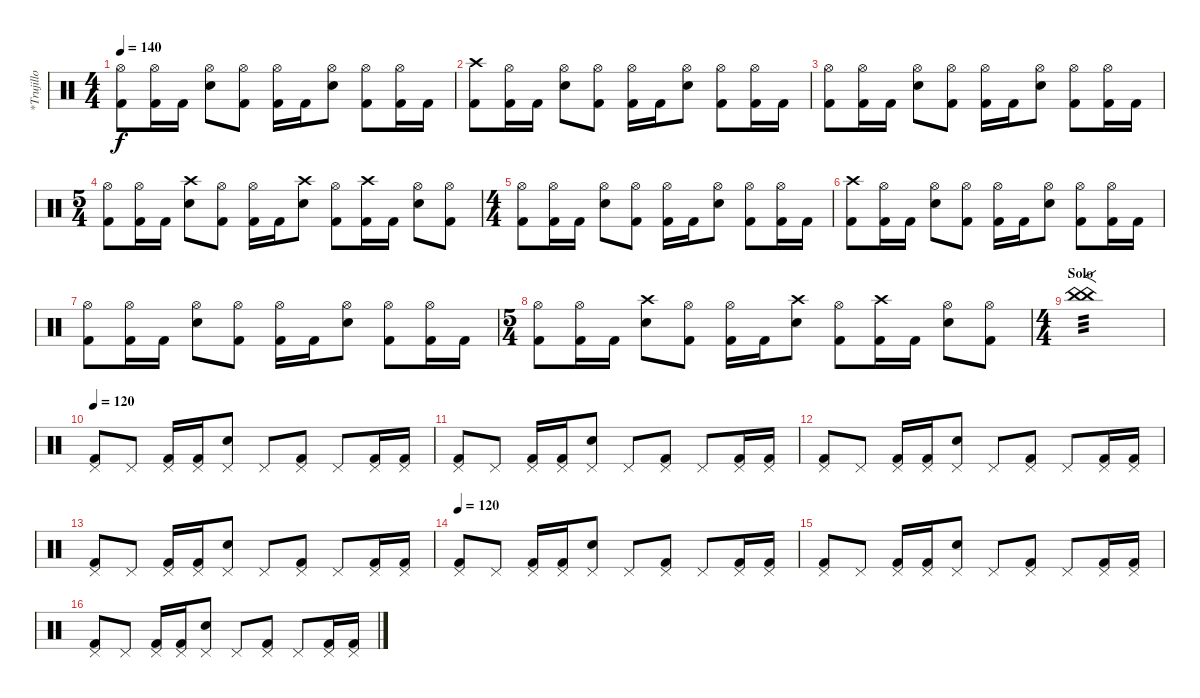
\track ("*Trujillo" "*Trujillo") {instrument percussion}
\staff {score}
\articulation defaults
\ts (4 4)
\tempo 140
\clef neutral
\ks c
("Hi-Hat (open)" "Kick (hit) 2").8{dy f} ("Hi-Hat (open)" "Kick (hit) 2").16 "Kick (hit) 2".16 ("Hi-Hat (open)" "Electric Snare (hit)").8 ("Hi-Hat (open)" "Kick (hit) 2").8 ("Hi-Hat (open)" "Kick (hit) 2").16 "Kick (hit) 2".16 ("Hi-Hat (open)" "Electric Snare (hit)").8 ("Hi-Hat (open)" "Kick (hit) 2").8 ("Hi-Hat (open)" "Kick (hit) 2").16 "Kick (hit) 2".16 |
("Crash high (hit)" "Kick (hit) 2").8 ("Hi-Hat (open)" "Kick (hit) 2").16 "Kick (hit) 2".16 ("Hi-Hat (open)" "Electric Snare (hit)").8 ("Hi-Hat (open)" "Kick (hit) 2").8 ("Hi-Hat (open)" "Kick (hit) 2").16 "Kick (hit) 2".16 ("Hi-Hat (open)" "Electric Snare (hit)").8 ("Hi-Hat (open)" "Kick (hit) 2").8 ("Hi-Hat (open)" "Kick (hit) 2").16 "Kick (hit) 2".16 |
("Hi-Hat (open)" "Kick (hit) 2").8 ("Hi-Hat (open)" "Kick (hit) 2").16 "Kick (hit) 2".16 ("Hi-Hat (open)" "Electric Snare (hit)").8 ("Hi-Hat (open)" "Kick (hit) 2").8 ("Hi-Hat (open)" "Kick (hit) 2").16 "Kick (hit) 2".16 ("Hi-Hat (open)" "Electric Snare (hit)").8 ("Hi-Hat (open)" "Kick (hit) 2").8 ("Hi-Hat (open)" "Kick (hit) 2").16 "Kick (hit) 2".16 |
\ts (5 4)
("Hi-Hat (open)" "Kick (hit) 2").8 ("Hi-Hat (open)" "Kick (hit) 2").16 "Kick (hit) 2".16 ("Crash high (hit)" "Electric Snare (hit)").8 ("Hi-Hat (open)" "Kick (hit) 2").8 ("Hi-Hat (open)" "Kick (hit) 2").16 "Kick (hit) 2".16 ("Crash high (hit)" "Electric Snare (hit)").8 ("Hi-Hat (open)" "Kick (hit) 2").8 ("Crash high (hit)" "Kick (hit) 2").16 "Kick (hit) 2".16 ("Hi-Hat (open)" "Electric Snare (hit)").8 ("Hi-Hat (open)" "Kick (hit) 2").8 |
\ts (4 4)
("Hi-Hat (open)" "Kick (hit) 2").8 ("Hi-Hat (open)" "Kick (hit) 2").16 "Kick (hit) 2".16 ("Hi-Hat (open)" "Electric Snare (hit)").8 ("Hi-Hat (open)" "Kick (hit) 2").8 ("Hi-Hat (open)" "Kick (hit) 2").16 "Kick (hit) 2".16 ("Hi-Hat (open)" "Electric Snare (hit)").8 ("Hi-Hat (open)" "Kick (hit) 2").8 ("Hi-Hat (open)" "Kick (hit) 2").16 "Kick (hit) 2".16 |
("Crash high (hit)" "Kick (hit) 2").8 ("Hi-Hat (open)" "Kick (hit) 2").16 "Kick (hit) 2".16 ("Hi-Hat (open)" "Electric Snare (hit)").8 ("Hi-Hat (open)" "Kick (hit) 2").8 ("Hi-Hat (open)" "Kick (hit) 2").16 "Kick (hit) 2".16 ("Hi-Hat (open)" "Electric Snare (hit)").8 ("Hi-Hat (open)" "Kick (hit) 2").8 ("Hi-Hat (open)" "Kick (hit) 2").16 "Kick (hit) 2".16 |
("Hi-Hat (open)" "Kick (hit) 2").8 ("Hi-Hat (open)" "Kick (hit) 2").16 "Kick (hit) 2".16 ("Hi-Hat (open)" "Electric Snare (hit)").8 ("Hi-Hat (open)" "Kick (hit) 2").8 ("Hi-Hat (open)" "Kick (hit) 2").16 "Kick (hit) 2".16 ("Hi-Hat (open)" "Electric Snare (hit)").8 ("Hi-Hat (open)" "Kick (hit) 2").8 ("Hi-Hat (open)" "Kick (hit) 2").16 "Kick (hit) 2".16 |
\ts (5 4)
("Hi-Hat (open)" "Kick (hit) 2").8 ("Hi-Hat (open)" "Kick (hit) 2").16 "Kick (hit) 2".16 ("Crash high (hit)" "Electric Snare (hit)").8 ("Hi-Hat (open)" "Kick (hit) 2").8 ("Hi-Hat (open)" "Kick (hit) 2").16 "Kick (hit) 2".16 ("Crash high (hit)" "Electric Snare (hit)").8 ("Hi-Hat (open)" "Kick (hit) 2").8 ("Crash high (hit)" "Kick (hit) 2").16 "Kick (hit) 2".16 ("Hi-Hat (open)" "Electric Snare (hit)").8 ("Hi-Hat (open)" "Kick (hit) 2").8 |
\ts (4 4)
\section ("" "Solo")
("China (hit)" "China (hit)").1{f tp 3} |
\tempo 120
("Pedal Hi-Hat (hit)" "Kick (hit) 2").8 "Pedal Hi-Hat (hit)".8 ("Pedal Hi-Hat (hit)" "Kick (hit) 2").16 ("Pedal Hi-Hat (hit)"{x} "Kick (hit) 2"{x}).16 ("Pedal Hi-Hat (hit)" "Electric Snare (hit)").8 "Pedal Hi-Hat (hit)".8 ("Pedal Hi-Hat (hit)" "Kick (hit) 2").8 "Pedal Hi-Hat (hit)".8 ("Pedal Hi-Hat (hit)" "Kick (hit) 2").16 ("Pedal Hi-Hat (hit)" "Kick (hit) 2").16 |
("Pedal Hi-Hat (hit)" "Kick (hit) 2").8 "Pedal Hi-Hat (hit)".8 ("Pedal Hi-Hat (hit)" "Kick (hit) 2").16 ("Pedal Hi-Hat (hit)"{x} "Kick (hit) 2"{x}).16 ("Pedal Hi-Hat (hit)" "Electric Snare (hit)").8 "Pedal Hi-Hat (hit)".8 ("Pedal Hi-Hat (hit)" "Kick (hit) 2").8 "Pedal Hi-Hat (hit)".8 ("Pedal Hi-Hat (hit)" "Kick (hit) 2").16 ("Pedal Hi-Hat (hit)" "Kick (hit) 2").16 |
("Pedal Hi-Hat (hit)" "Kick (hit) 2").8 "Pedal Hi-Hat (hit)".8 ("Pedal Hi-Hat (hit)" "Kick (hit) 2").16 ("Pedal Hi-Hat (hit)"{x} "Kick (hit) 2"{x}).16 ("Pedal Hi-Hat (hit)" "Electric Snare (hit)").8 "Pedal Hi-Hat (hit)".8 ("Pedal Hi-Hat (hit)" "Kick (hit) 2").8 "Pedal Hi-Hat (hit)".8 ("Pedal Hi-Hat (hit)" "Kick (hit) 2").16 ("Pedal Hi-Hat (hit)" "Kick (hit) 2").16 |
("Pedal Hi-Hat (hit)" "Kick (hit) 2").8 "Pedal Hi-Hat (hit)".8 ("Pedal Hi-Hat (hit)" "Kick (hit) 2").16 ("Pedal Hi-Hat (hit)"{x} "Kick (hit) 2"{x}).16 ("Pedal Hi-Hat (hit)" "Electric Snare (hit)").8 "Pedal Hi-Hat (hit)".8 ("Pedal Hi-Hat (hit)" "Kick (hit) 2").8 "Pedal Hi-Hat (hit)".8 ("Pedal Hi-Hat (hit)" "Kick (hit) 2").16 ("Pedal Hi-Hat (hit)" "Kick (hit) 2").16 |
\tempo 120
("Pedal Hi-Hat (hit)" "Kick (hit) 2").8 "Pedal Hi-Hat (hit)".8 ("Pedal Hi-Hat (hit)" "Kick (hit) 2").16 ("Pedal Hi-Hat (hit)"{x} "Kick (hit) 2"{x}).16 ("Pedal Hi-Hat (hit)" "Electric Snare (hit)").8 "Pedal Hi-Hat (hit)".8 ("Pedal Hi-Hat (hit)" "Kick (hit) 2").8 "Pedal Hi-Hat (hit)".8 ("Pedal Hi-Hat (hit)" "Kick (hit) 2").16 ("Pedal Hi-Hat (hit)" "Kick (hit) 2").16 |
("Pedal Hi-Hat (hit)" "Kick (hit) 2").8 "Pedal Hi-Hat (hit)".8 ("Pedal Hi-Hat (hit)" "Kick (hit) 2").16 ("Pedal Hi-Hat (hit)"{x} "Kick (hit) 2"{x}).16 ("Pedal Hi-Hat (hit)" "Electric Snare (hit)").8 "Pedal Hi-Hat (hit)".8 ("Pedal Hi-Hat (hit)" "Kick (hit) 2").8 "Pedal Hi-Hat (hit)".8 ("Pedal Hi-Hat (hit)" "Kick (hit) 2").16 ("Pedal Hi-Hat (hit)" "Kick (hit) 2").16 |
("Pedal Hi-Hat (hit)" "Kick (hit) 2").8 "Pedal Hi-Hat (hit)".8 ("Pedal Hi-Hat (hit)" "Kick (hit) 2").16 ("Pedal Hi-Hat (hit)"{x} "Kick (hit) 2"{x}).16 ("Pedal Hi-Hat (hit)" "Electric Snare (hit)").8 "Pedal Hi-Hat (hit)".8 ("Pedal Hi-Hat (hit)" "Kick (hit) 2").8 "Pedal Hi-Hat (hit)".8 ("Pedal Hi-Hat (hit)" "Kick (hit) 2").16 ("Pedal Hi-Hat (hit)" "Kick (hit) 2").16
